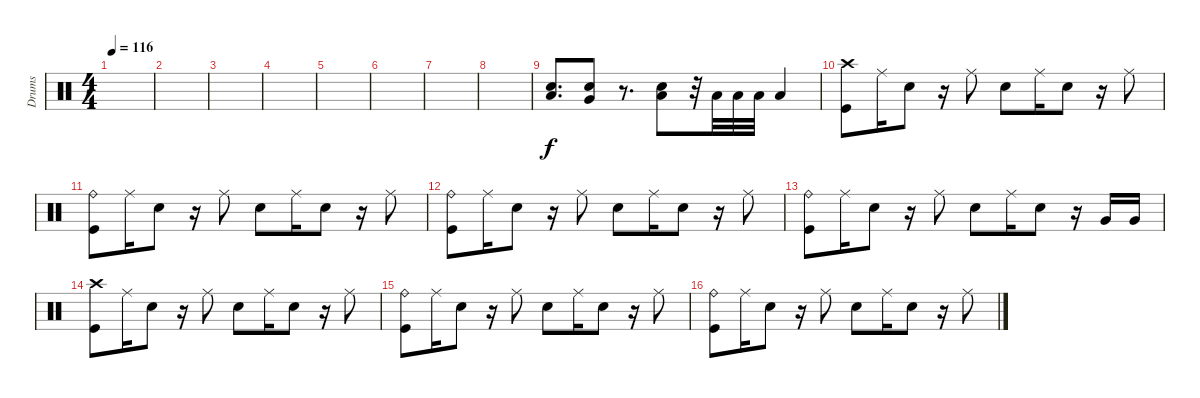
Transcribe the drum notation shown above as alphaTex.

\track ("Drums" "Drums") {instrument percussion}
\staff {score}
\articulation defaults
\ts (4 4)
\tempo 116
\clef neutral
\ks c
|
|
|
|
|
|
|
|
("Low Tom (hit)" "Snare (hit) 2").8{d} ("Snare (hit) 2" "Very Low Tom (hit)").8 r.8{d} ("Low Tom (hit)" "Snare (hit) 2").8 r.32 "Low Floor Tom (hit)".32 "Low Floor Tom (hit)".32 "Low Floor Tom (hit)".32 "Low Floor Tom (hit)".4 |
("Crash high (hit)" "Kick (hit)").8 "Ride (middle)".16 "Snare (hit) 2".8 r.16 "Ride (middle)".8 "Snare (hit) 2".8 "Ride (middle)".16 "Snare (hit) 2".8 r.16 "Ride (middle)".8 |
("Ride (bell)" "Kick (hit)").8 "Ride (middle)".16 "Snare (hit) 2".8 r.16 "Ride (middle)".8 "Snare (hit) 2".8 "Ride (middle)".16 "Snare (hit) 2".8 r.16 "Ride (middle)".8 |
("Ride (bell)" "Kick (hit)").8 "Ride (middle)".16 "Snare (hit) 2".8 r.16 "Ride (middle)".8 "Snare (hit) 2".8 "Ride (middle)".16 "Snare (hit) 2".8 r.16 "Ride (middle)".8 |
("Ride (bell)" "Kick (hit)").8 "Ride (middle)".16 "Snare (hit) 2".8 r.16 "Ride (middle)".8 "Snare (hit) 2".8 "Ride (middle)".16 "Snare (hit) 2".8 r.16 "Very Low Tom (hit)".16 "Very Low Tom (hit)".16 |
("Crash high (hit)" "Kick (hit)").8 "Ride (middle)".16 "Snare (hit) 2".8 r.16 "Ride (middle)".8 "Snare (hit) 2".8 "Ride (middle)".16 "Snare (hit) 2".8 r.16 "Ride (middle)".8 |
("Ride (bell)" "Kick (hit)").8 "Ride (middle)".16 "Snare (hit) 2".8 r.16 "Ride (middle)".8 "Snare (hit) 2".8 "Ride (middle)".16 "Snare (hit) 2".8 r.16 "Ride (middle)".8 |
("Ride (bell)" "Kick (hit)").8 "Ride (middle)".16 "Snare (hit) 2".8 r.16 "Ride (middle)".8 "Snare (hit) 2".8 "Ride (middle)".16 "Snare (hit) 2".8 r.16 "Ride (middle)".8
